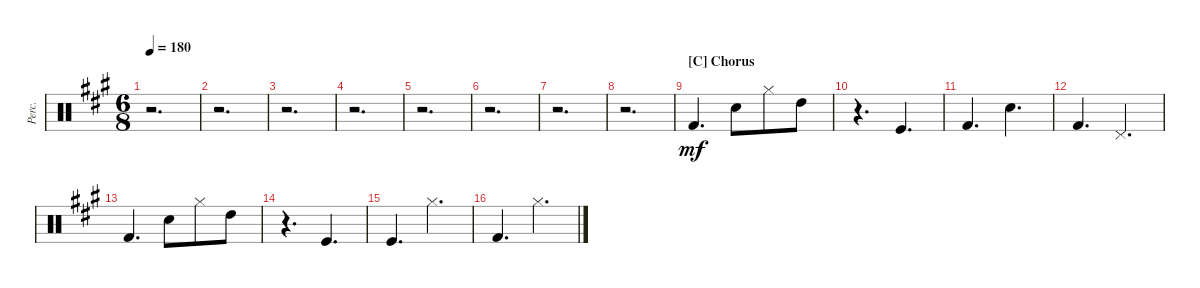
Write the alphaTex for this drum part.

\defaultSystemsLayout 4
\bracketExtendMode groupsimilarinstruments
\otherSystemsTrackNameOrientation horizontal
\track ("Percussions" "Perc.") {instrument percussion}
\staff {score}
\articulation defaults
\ts (6 8)
\tempo 180
\clef neutral
\ks f#minor
r.2{d dy mf beam Down} |
r.2{d beam Down} |
r.2{d beam Down} |
r.2{d beam Down} |
r.2{d beam Down} |
r.2{d beam Down} |
r.2{d beam Down} |
r.2{d beam Down} |
\section ("C" "Chorus")
"Kick (hit) 2"{acc forcenatural}.4{d beam Up} "Snare (hit) 2"{acc forcenatural}.8{beam Down} "Hi-Hat (closed)"{acc forcenatural}.8{beam Down} "High Tom (hit)"{acc forcenatural}.8{beam Down} |
r.4{d beam Down} "Kick (hit)"{acc forcenatural}.4{d beam Up} |
"Kick (hit) 2"{acc forcenatural}.4{d beam Up} "Snare (hit) 2"{acc forcenatural}.4{d beam Down} |
"Kick (hit) 2"{acc forcenatural}.4{d beam Up} "Pedal Hi-Hat (hit)"{acc forcenatural}.4{d beam Up} |
"Kick (hit) 2"{acc forcenatural}.4{d beam Up} "Snare (hit) 2"{acc forcenatural}.8{beam Down} "Hi-Hat (closed)"{acc forcenatural}.8{beam Down} "High Tom (hit)"{acc forcenatural}.8{beam Down} |
r.4{d beam Down} "Kick (hit)"{acc forcenatural}.4{d beam Up} |
"Kick (hit)"{acc forcenatural}.4{d beam Up} "Hi-Hat (closed)"{acc forcenatural}.4{d beam Down} |
"Kick (hit) 2"{acc forcenatural}.4{d beam Up} "Hi-Hat (closed)"{acc forcenatural}.4{d beam Down}
